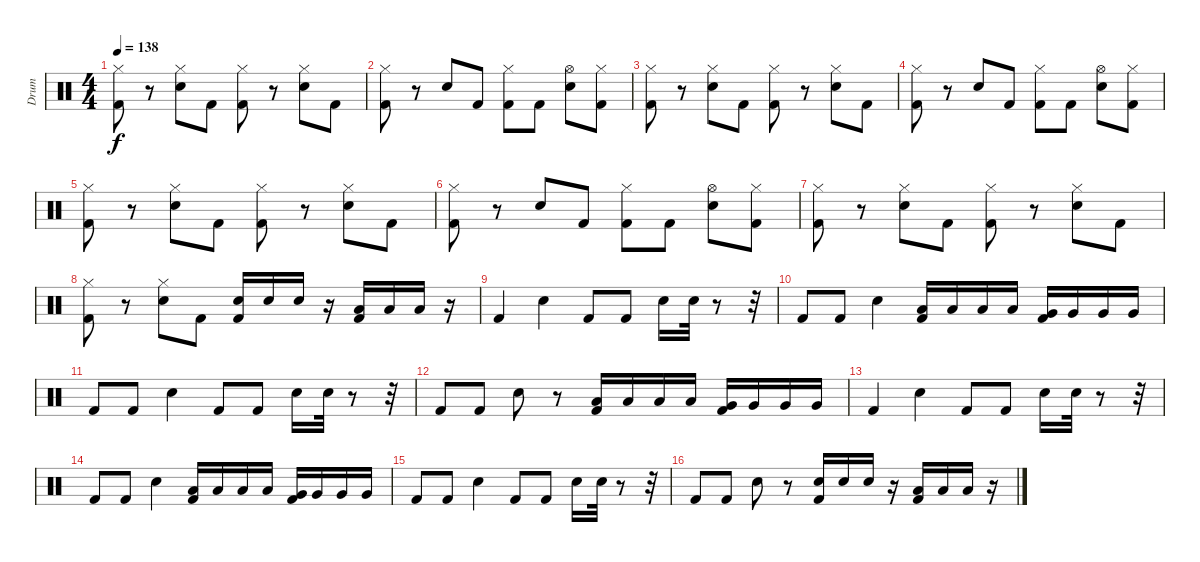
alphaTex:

\track ("Drum" "Drum") {instrument percussion}
\staff {score}
\articulation defaults
\ts (4 4)
\tempo 138
\clef neutral
\ks c
("Hi-Hat (closed)" "Kick (hit) 2").8{dy f} r.8 ("Hi-Hat (closed)" "Electric Snare (hit)").8 "Kick (hit) 2".8 ("Hi-Hat (closed)" "Kick (hit) 2").8 r.8 ("Hi-Hat (closed)" "Electric Snare (hit)").8 "Kick (hit) 2".8 |
("Hi-Hat (closed)" "Kick (hit) 2").8 r.8 "Electric Snare (hit)".8 "Kick (hit) 2".8 ("Hi-Hat (closed)" "Kick (hit) 2").8 "Kick (hit) 2".8 ("Hi-Hat (open)" "Electric Snare (hit)").8 ("Hi-Hat (closed)" "Kick (hit) 2").8 |
("Hi-Hat (closed)" "Kick (hit) 2").8 r.8 ("Hi-Hat (closed)" "Electric Snare (hit)").8 "Kick (hit) 2".8 ("Hi-Hat (closed)" "Kick (hit) 2").8 r.8 ("Hi-Hat (closed)" "Electric Snare (hit)").8 "Kick (hit) 2".8 |
("Hi-Hat (closed)" "Kick (hit) 2").8 r.8 "Electric Snare (hit)".8 "Kick (hit) 2".8 ("Hi-Hat (closed)" "Kick (hit) 2").8 "Kick (hit) 2".8 ("Hi-Hat (open)" "Electric Snare (hit)").8 ("Hi-Hat (closed)" "Kick (hit) 2").8 |
("Hi-Hat (closed)" "Kick (hit) 2").8 r.8 ("Hi-Hat (closed)" "Electric Snare (hit)").8 "Kick (hit) 2".8 ("Hi-Hat (closed)" "Kick (hit) 2").8 r.8 ("Hi-Hat (closed)" "Electric Snare (hit)").8 "Kick (hit) 2".8 |
("Hi-Hat (closed)" "Kick (hit) 2").8 r.8 "Electric Snare (hit)".8 "Kick (hit) 2".8 ("Hi-Hat (closed)" "Kick (hit) 2").8 "Kick (hit) 2".8 ("Hi-Hat (open)" "Electric Snare (hit)").8 ("Hi-Hat (closed)" "Kick (hit) 2").8 |
("Hi-Hat (closed)" "Kick (hit) 2").8 r.8 ("Hi-Hat (closed)" "Electric Snare (hit)").8 "Kick (hit) 2".8 ("Hi-Hat (closed)" "Kick (hit) 2").8 r.8 ("Hi-Hat (closed)" "Electric Snare (hit)").8 "Kick (hit) 2".8 |
("Hi-Hat (closed)" "Kick (hit) 2").8 r.8 ("Hi-Hat (closed)" "Electric Snare (hit)").8 "Kick (hit) 2".8 ("Electric Snare (hit)" "Kick (hit) 2").16 "Electric Snare (hit)".16 "Electric Snare (hit)".16 r.16 ("Low Tom (hit)" "Kick (hit) 2").16 "Low Tom (hit)".16 "Low Tom (hit)".16 r.16 |
"Kick (hit) 2".4 "Electric Snare (hit)".4 "Kick (hit) 2".8 "Kick (hit) 2".8 "Electric Snare (hit)".16 "Electric Snare (hit)".32 r.8 r.32 |
"Kick (hit) 2".8 "Kick (hit) 2".8 "Electric Snare (hit)".4 ("Low Tom (hit)" "Kick (hit) 2").16 "Low Tom (hit)".16 "Low Tom (hit)".16 "Low Tom (hit)".16 ("Very Low Tom (hit)" "Kick (hit) 2").16 "Very Low Tom (hit)".16 "Very Low Tom (hit)".16 "Very Low Tom (hit)".16 |
"Kick (hit) 2".8 "Kick (hit) 2".8 "Electric Snare (hit)".4 "Kick (hit) 2".8 "Kick (hit) 2".8 "Electric Snare (hit)".16 "Electric Snare (hit)".32 r.8 r.32 |
"Kick (hit) 2".8 "Kick (hit) 2".8 "Electric Snare (hit)".8 r.8 ("Low Tom (hit)" "Kick (hit) 2").16 "Low Tom (hit)".16 "Low Tom (hit)".16 "Low Tom (hit)".16 ("Very Low Tom (hit)" "Kick (hit) 2").16 "Very Low Tom (hit)".16 "Very Low Tom (hit)".16 "Very Low Tom (hit)".16 |
"Kick (hit) 2".4 "Electric Snare (hit)".4 "Kick (hit) 2".8 "Kick (hit) 2".8 "Electric Snare (hit)".16 "Electric Snare (hit)".32 r.8 r.32 |
"Kick (hit) 2".8 "Kick (hit) 2".8 "Electric Snare (hit)".4 ("Low Tom (hit)" "Kick (hit) 2").16 "Low Tom (hit)".16 "Low Tom (hit)".16 "Low Tom (hit)".16 ("Very Low Tom (hit)" "Kick (hit) 2").16 "Very Low Tom (hit)".16 "Very Low Tom (hit)".16 "Very Low Tom (hit)".16 |
"Kick (hit) 2".8 "Kick (hit) 2".8 "Electric Snare (hit)".4 "Kick (hit) 2".8 "Kick (hit) 2".8 "Electric Snare (hit)".16 "Electric Snare (hit)".32 r.8 r.32 |
"Kick (hit) 2".8 "Kick (hit) 2".8 "Electric Snare (hit)".8 r.8 ("Electric Snare (hit)" "Kick (hit) 2").16 "Electric Snare (hit)".16 "Electric Snare (hit)".16 r.16 ("Low Tom (hit)" "Kick (hit) 2").16 "Low Tom (hit)".16 "Low Tom (hit)".16 r.16
